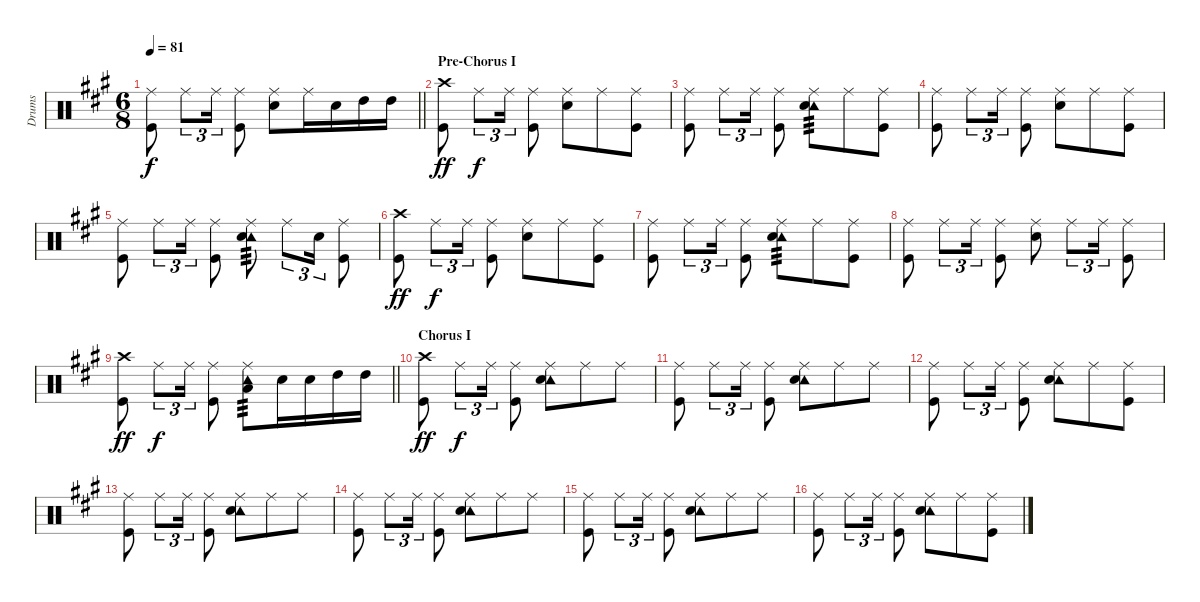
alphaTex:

\track ("Drums" "Drums") {instrument percussion}
\staff {score}
\articulation defaults
\ts (6 8)
\tempo 81
\clef neutral
\barLineRight lightlight
\ks a
("Ride (middle)" "Kick (hit)").8{dy f} "Ride (middle)".8{tu (3 2)} "Ride (middle)".16{tu (3 2)} ("Ride (middle)" "Kick (hit)").8 ("Ride (middle)" "Snare (hit) 2").8 "Ride (middle)".16 "Snare (hit) 2".16 "High Tom (hit)".16 "High Tom (hit)".16 |
\section ("" "Pre-Chorus I")
("Crash high (hit)" "Kick (hit)").8{dy ff} "Ride (middle)".8{tu (3 2) dy f} "Ride (middle)".16{tu (3 2)} ("Ride (middle)" "Kick (hit)").8 ("Ride (middle)" "Snare (hit) 2").8 "Ride (middle)".8 ("Ride (middle)" "Kick (hit)").8 |
("Ride (middle)" "Kick (hit)").8 "Ride (middle)".8{tu (3 2)} "Ride (middle)".16{tu (3 2)} ("Ride (middle)" "Kick (hit)").8 ("Ride (middle)" "Tambourine (hit)" "Snare (hit) 2").8{tp 3} "Ride (middle)".8 ("Ride (middle)" "Kick (hit)").8 |
("Ride (middle)" "Kick (hit)").8 "Ride (middle)".8{tu (3 2)} "Ride (middle)".16{tu (3 2)} ("Ride (middle)" "Kick (hit)").8 ("Ride (middle)" "Snare (hit) 2").8 "Ride (middle)".8 ("Ride (middle)" "Kick (hit)").8 |
("Ride (middle)" "Kick (hit)").8 "Ride (middle)".8{tu (3 2)} "Ride (middle)".16{tu (3 2)} ("Ride (middle)" "Kick (hit)").8 ("Ride (middle)" "Tambourine (hit)" "Snare (hit) 2").8{tp 3} "Ride (middle)".8{tu (3 2)} "Snare (hit) 2".16{tu (3 2)} ("Ride (middle)" "Kick (hit)").8 |
("Crash high (hit)" "Kick (hit)").8{dy ff} "Ride (middle)".8{tu (3 2) dy f} "Ride (middle)".16{tu (3 2)} ("Ride (middle)" "Kick (hit)").8 ("Ride (middle)" "Snare (hit) 2").8 "Ride (middle)".8 ("Ride (middle)" "Kick (hit)").8 |
("Ride (middle)" "Kick (hit)").8 "Ride (middle)".8{tu (3 2)} "Ride (middle)".16{tu (3 2)} ("Ride (middle)" "Kick (hit)").8 ("Ride (middle)" "Tambourine (hit)" "Snare (hit) 2").8{tp 3} "Ride (middle)".8 ("Ride (middle)" "Kick (hit)").8 |
("Ride (middle)" "Kick (hit)").8 "Ride (middle)".8{tu (3 2)} "Ride (middle)".16{tu (3 2)} ("Ride (middle)" "Kick (hit)").8 ("Ride (middle)" "Snare (hit) 2").8 "Ride (middle)".8{tu (3 2)} "Ride (middle)".16{tu (3 2)} ("Ride (middle)" "Kick (hit)").8 |
\barLineRight lightlight
("Crash high (hit)" "Kick (hit)").8{dy ff} "Ride (middle)".8{tu (3 2) dy f} "Ride (middle)".16{tu (3 2)} ("Ride (middle)" "Kick (hit)").8 ("Ride (middle)" "Tambourine (hit)" "Low Floor Tom (hit)").8{tp 3} "Snare (hit) 2".16 "Snare (hit) 2".16 "High Tom (hit)".16 "High Tom (hit)".16 |
\section ("" "Chorus I")
("Crash high (hit)" "Kick (hit)").8{dy ff} "Ride (middle)".8{tu (3 2) dy f} "Ride (middle)".16{tu (3 2)} ("Ride (middle)" "Kick (hit)").8 ("Ride (middle)" "Tambourine (hit)" "Snare (hit) 2").8 "Ride (middle)".8 "Ride (middle)".8 |
("Ride (middle)" "Kick (hit)").8 "Ride (middle)".8{tu (3 2)} "Ride (middle)".16{tu (3 2)} ("Ride (middle)" "Kick (hit)").8 ("Ride (middle)" "Tambourine (hit)" "Snare (hit) 2").8 "Ride (middle)".8 "Ride (middle)".8 |
("Ride (middle)" "Kick (hit)").8 "Ride (middle)".8{tu (3 2)} "Ride (middle)".16{tu (3 2)} ("Ride (middle)" "Kick (hit)").8 ("Ride (middle)" "Tambourine (hit)" "Snare (hit) 2").8 "Ride (middle)".8 ("Ride (middle)" "Kick (hit)").8 |
("Ride (middle)" "Kick (hit)").8 "Ride (middle)".8{tu (3 2)} "Ride (middle)".16{tu (3 2)} ("Ride (middle)" "Kick (hit)").8 ("Ride (middle)" "Tambourine (hit)" "Snare (hit) 2").8 "Ride (middle)".8 "Ride (middle)".8 |
("Ride (middle)" "Kick (hit)").8 "Ride (middle)".8{tu (3 2)} "Ride (middle)".16{tu (3 2)} ("Ride (middle)" "Kick (hit)").8 ("Ride (middle)" "Tambourine (hit)" "Snare (hit) 2").8 "Ride (middle)".8 "Ride (middle)".8 |
("Ride (middle)" "Kick (hit)").8 "Ride (middle)".8{tu (3 2)} "Ride (middle)".16{tu (3 2)} ("Ride (middle)" "Kick (hit)").8 ("Ride (middle)" "Tambourine (hit)" "Snare (hit) 2").8 "Ride (middle)".8 "Ride (middle)".8 |
("Ride (middle)" "Kick (hit)").8 "Ride (middle)".8{tu (3 2)} "Ride (middle)".16{tu (3 2)} ("Ride (middle)" "Kick (hit)").8 ("Ride (middle)" "Tambourine (hit)" "Snare (hit) 2").8 "Ride (middle)".8 ("Ride (middle)" "Kick (hit)").8
